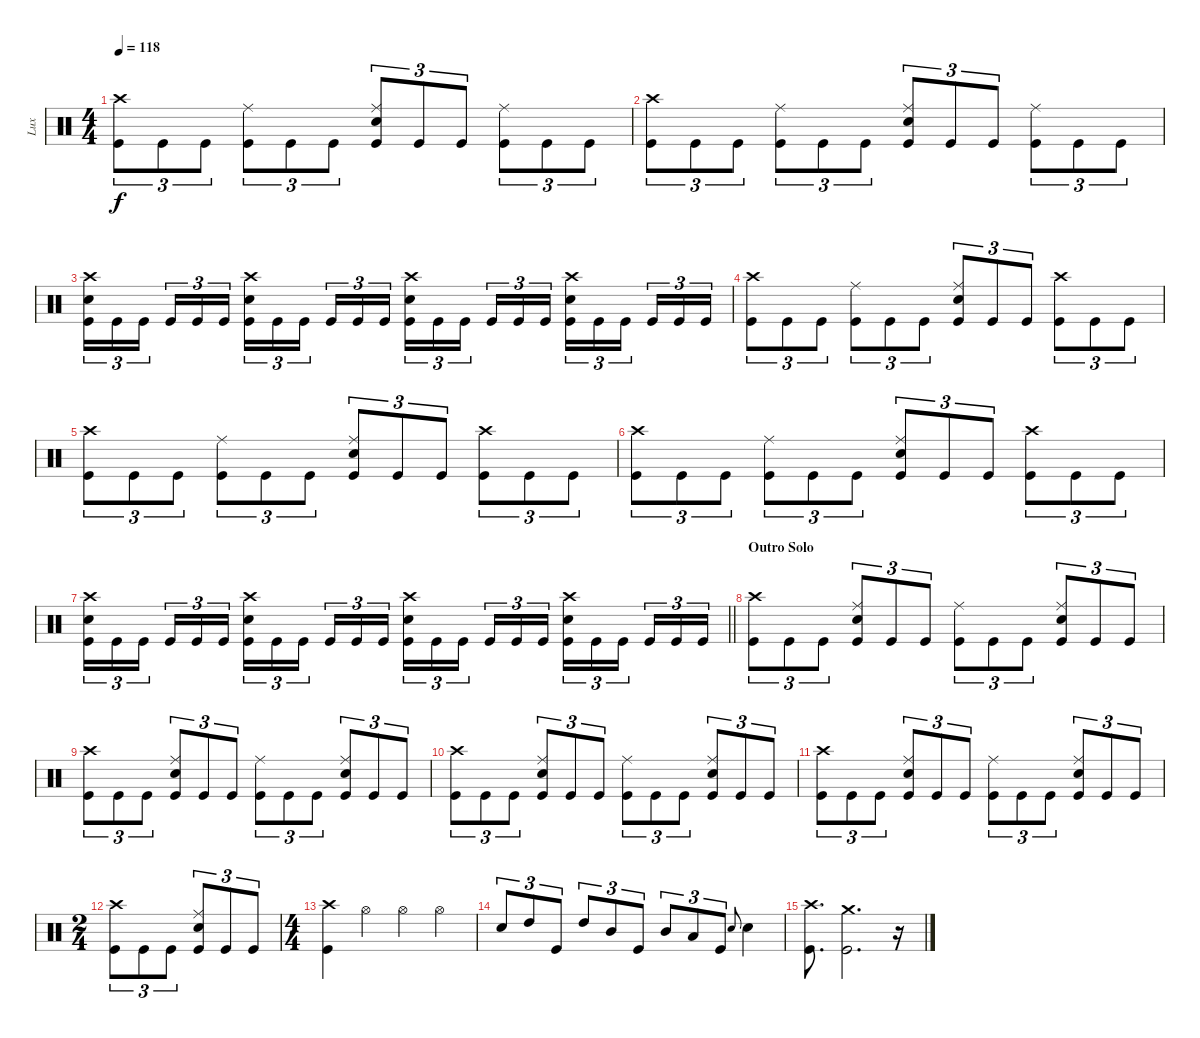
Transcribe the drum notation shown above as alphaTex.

\track ("Lux" "Lux") {instrument percussion}
\staff {score}
\articulation defaults
\ts (4 4)
\tempo 118
\clef neutral
\ks c
("Crash high (hit)" "Kick (hit)").8{tu (3 2) dy f} "Kick (hit)".8{tu (3 2)} "Kick (hit)".8{tu (3 2)} ("Ride (middle)" "Kick (hit)").8{tu (3 2)} "Kick (hit)".8{tu (3 2)} "Kick (hit)".8{tu (3 2)} ("Ride (middle)" "Snare (hit) 2" "Kick (hit)").8{tu (3 2)} "Kick (hit)".8{tu (3 2)} "Kick (hit)".8{tu (3 2)} ("Ride (middle)" "Kick (hit)").8{tu (3 2)} "Kick (hit)".8{tu (3 2)} "Kick (hit)".8{tu (3 2)} |
("Crash high (hit)" "Kick (hit)").8{tu (3 2)} "Kick (hit)".8{tu (3 2)} "Kick (hit)".8{tu (3 2)} ("Ride (middle)" "Kick (hit)").8{tu (3 2)} "Kick (hit)".8{tu (3 2)} "Kick (hit)".8{tu (3 2)} ("Ride (middle)" "Snare (hit) 2" "Kick (hit)").8{tu (3 2)} "Kick (hit)".8{tu (3 2)} "Kick (hit)".8{tu (3 2)} ("Ride (middle)" "Kick (hit)").8{tu (3 2)} "Kick (hit)".8{tu (3 2)} "Kick (hit)".8{tu (3 2)} |
("Crash high (hit)" "Snare (hit) 2" "Kick (hit)").16{tu (3 2)} "Kick (hit)".16{tu (3 2)} "Kick (hit)".16{tu (3 2) beam splitsecondary} "Kick (hit)".16{tu (3 2)} "Kick (hit)".16{tu (3 2)} "Kick (hit)".16{tu (3 2)} ("Crash high (hit)" "Snare (hit) 2" "Kick (hit)").16{tu (3 2)} "Kick (hit)".16{tu (3 2)} "Kick (hit)".16{tu (3 2) beam splitsecondary} "Kick (hit)".16{tu (3 2)} "Kick (hit)".16{tu (3 2)} "Kick (hit)".16{tu (3 2)} ("Crash high (hit)" "Snare (hit) 2" "Kick (hit)").16{tu (3 2)} "Kick (hit)".16{tu (3 2)} "Kick (hit)".16{tu (3 2) beam splitsecondary} "Kick (hit)".16{tu (3 2)} "Kick (hit)".16{tu (3 2)} "Kick (hit)".16{tu (3 2)} ("Crash high (hit)" "Snare (hit) 2" "Kick (hit)").16{tu (3 2)} "Kick (hit)".16{tu (3 2)} "Kick (hit)".16{tu (3 2) beam splitsecondary} "Kick (hit)".16{tu (3 2)} "Kick (hit)".16{tu (3 2)} "Kick (hit)".16{tu (3 2)} |
("Crash high (hit)" "Kick (hit)").8{tu (3 2)} "Kick (hit)".8{tu (3 2)} "Kick (hit)".8{tu (3 2)} ("Ride (middle)" "Kick (hit)").8{tu (3 2)} "Kick (hit)".8{tu (3 2)} "Kick (hit)".8{tu (3 2)} ("Ride (middle)" "Snare (hit) 2" "Kick (hit)").8{tu (3 2)} "Kick (hit)".8{tu (3 2)} "Kick (hit)".8{tu (3 2)} ("Crash high (hit)" "Kick (hit)").8{tu (3 2)} "Kick (hit)".8{tu (3 2)} "Kick (hit)".8{tu (3 2)} |
("Crash high (hit)" "Kick (hit)").8{tu (3 2)} "Kick (hit)".8{tu (3 2)} "Kick (hit)".8{tu (3 2)} ("Ride (middle)" "Kick (hit)").8{tu (3 2)} "Kick (hit)".8{tu (3 2)} "Kick (hit)".8{tu (3 2)} ("Ride (middle)" "Snare (hit) 2" "Kick (hit)").8{tu (3 2)} "Kick (hit)".8{tu (3 2)} "Kick (hit)".8{tu (3 2)} ("Crash high (hit)" "Kick (hit)").8{tu (3 2)} "Kick (hit)".8{tu (3 2)} "Kick (hit)".8{tu (3 2)} |
("Crash high (hit)" "Kick (hit)").8{tu (3 2)} "Kick (hit)".8{tu (3 2)} "Kick (hit)".8{tu (3 2)} ("Ride (middle)" "Kick (hit)").8{tu (3 2)} "Kick (hit)".8{tu (3 2)} "Kick (hit)".8{tu (3 2)} ("Ride (middle)" "Snare (hit) 2" "Kick (hit)").8{tu (3 2)} "Kick (hit)".8{tu (3 2)} "Kick (hit)".8{tu (3 2)} ("Crash high (hit)" "Kick (hit)").8{tu (3 2)} "Kick (hit)".8{tu (3 2)} "Kick (hit)".8{tu (3 2)} |
\barLineRight lightlight
("Crash high (hit)" "Snare (hit) 2" "Kick (hit)").16{tu (3 2)} "Kick (hit)".16{tu (3 2)} "Kick (hit)".16{tu (3 2) beam splitsecondary} "Kick (hit)".16{tu (3 2)} "Kick (hit)".16{tu (3 2)} "Kick (hit)".16{tu (3 2)} ("Crash high (hit)" "Snare (hit) 2" "Kick (hit)").16{tu (3 2)} "Kick (hit)".16{tu (3 2)} "Kick (hit)".16{tu (3 2) beam splitsecondary} "Kick (hit)".16{tu (3 2)} "Kick (hit)".16{tu (3 2)} "Kick (hit)".16{tu (3 2)} ("Crash high (hit)" "Snare (hit) 2" "Kick (hit)").16{tu (3 2)} "Kick (hit)".16{tu (3 2)} "Kick (hit)".16{tu (3 2) beam splitsecondary} "Kick (hit)".16{tu (3 2)} "Kick (hit)".16{tu (3 2)} "Kick (hit)".16{tu (3 2)} ("Crash high (hit)" "Snare (hit) 2" "Kick (hit)").16{tu (3 2)} "Kick (hit)".16{tu (3 2)} "Kick (hit)".16{tu (3 2) beam splitsecondary} "Kick (hit)".16{tu (3 2)} "Kick (hit)".16{tu (3 2)} "Kick (hit)".16{tu (3 2)} |
\section ("" "Outro Solo")
("Crash high (hit)" "Kick (hit)").8{tu (3 2)} "Kick (hit)".8{tu (3 2)} "Kick (hit)".8{tu (3 2)} ("Ride (middle)" "Snare (hit) 2" "Kick (hit)").8{tu (3 2)} "Kick (hit)".8{tu (3 2)} "Kick (hit)".8{tu (3 2)} ("Ride (middle)" "Kick (hit)").8{tu (3 2)} "Kick (hit)".8{tu (3 2)} "Kick (hit)".8{tu (3 2)} ("Ride (middle)" "Snare (hit) 2" "Kick (hit)").8{tu (3 2)} "Kick (hit)".8{tu (3 2)} "Kick (hit)".8{tu (3 2)} |
("Crash high (hit)" "Kick (hit)").8{tu (3 2)} "Kick (hit)".8{tu (3 2)} "Kick (hit)".8{tu (3 2)} ("Ride (middle)" "Snare (hit) 2" "Kick (hit)").8{tu (3 2)} "Kick (hit)".8{tu (3 2)} "Kick (hit)".8{tu (3 2)} ("Ride (middle)" "Kick (hit)").8{tu (3 2)} "Kick (hit)".8{tu (3 2)} "Kick (hit)".8{tu (3 2)} ("Ride (middle)" "Snare (hit) 2" "Kick (hit)").8{tu (3 2)} "Kick (hit)".8{tu (3 2)} "Kick (hit)".8{tu (3 2)} |
("Crash high (hit)" "Kick (hit)").8{tu (3 2)} "Kick (hit)".8{tu (3 2)} "Kick (hit)".8{tu (3 2)} ("Ride (middle)" "Snare (hit) 2" "Kick (hit)").8{tu (3 2)} "Kick (hit)".8{tu (3 2)} "Kick (hit)".8{tu (3 2)} ("Ride (middle)" "Kick (hit)").8{tu (3 2)} "Kick (hit)".8{tu (3 2)} "Kick (hit)".8{tu (3 2)} ("Ride (middle)" "Snare (hit) 2" "Kick (hit)").8{tu (3 2)} "Kick (hit)".8{tu (3 2)} "Kick (hit)".8{tu (3 2)} |
("Crash high (hit)" "Kick (hit)").8{tu (3 2)} "Kick (hit)".8{tu (3 2)} "Kick (hit)".8{tu (3 2)} ("Ride (middle)" "Snare (hit) 2" "Kick (hit)").8{tu (3 2)} "Kick (hit)".8{tu (3 2)} "Kick (hit)".8{tu (3 2)} ("Ride (middle)" "Kick (hit)").8{tu (3 2)} "Kick (hit)".8{tu (3 2)} "Kick (hit)".8{tu (3 2)} ("Ride (middle)" "Snare (hit) 2" "Kick (hit)").8{tu (3 2)} "Kick (hit)".8{tu (3 2)} "Kick (hit)".8{tu (3 2)} |
\ts (2 4)
("Crash high (hit)" "Kick (hit)").8{tu (3 2)} "Kick (hit)".8{tu (3 2)} "Kick (hit)".8{tu (3 2)} ("Ride (middle)" "Snare (hit) 2" "Kick (hit)").8{tu (3 2)} "Kick (hit)".8{tu (3 2)} "Kick (hit)".8{tu (3 2)} |
\ts (4 4)
("Crash high (hit)" "Kick (hit)").4 "Hi-Hat (open)".4 "Hi-Hat (open)".4 "Hi-Hat (open)".4 |
"Snare (hit) 2".8{tu (3 2)} "High Tom (hit)".8{tu (3 2)} "Kick (hit)".8{tu (3 2)} "High Tom (hit)".8{tu (3 2)} "Mid Tom (hit)".8{tu (3 2)} "Kick (hit)".8{tu (3 2)} "Mid Tom (hit)".8{tu (3 2)} "Low Tom (hit)".8{tu (3 2)} "Kick (hit)".8{tu (3 2)} "Snare (hit) 2".8{gr onbeat} "Snare (hit) 2".4 |
("Crash high (hit)" "Kick (hit)").8{d} ("Crash medium (hit)" "Kick (hit)").2{d} r.16
